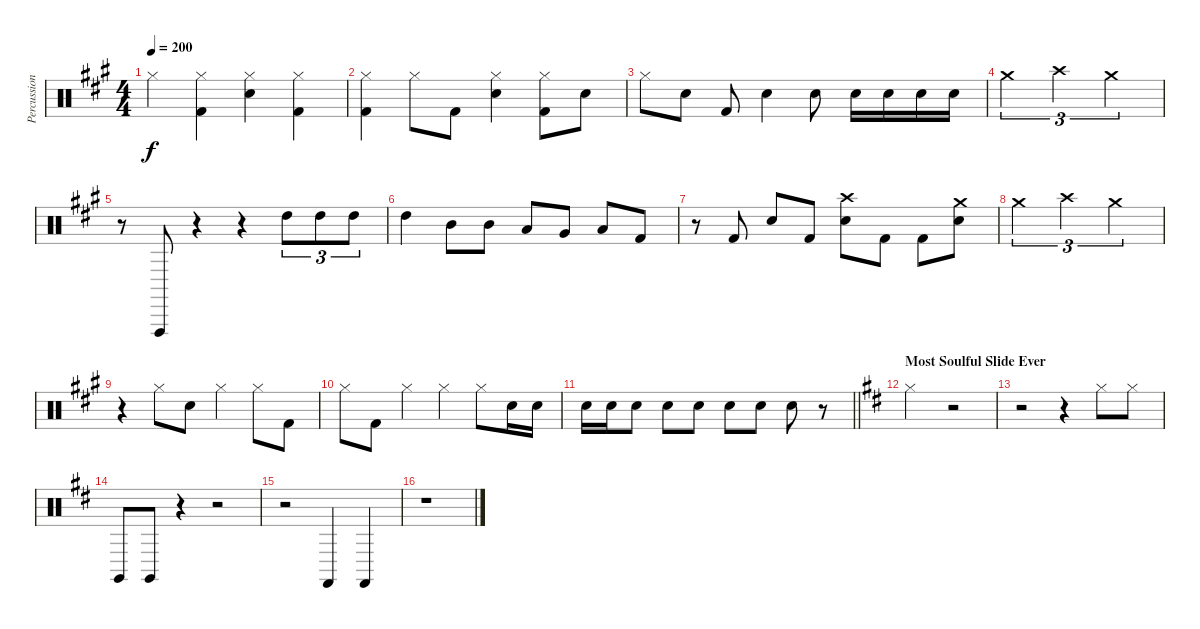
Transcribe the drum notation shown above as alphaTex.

\track ("Percussion" "Percussion") {instrument percussion}
\staff {score}
\articulation defaults
\ts (4 4)
\tempo 200
\clef neutral
\ks a "Hi-Hat (closed)".4{dy f}
("Hi-Hat (closed)" "Kick (hit) 2").4 ("Hi-Hat (closed)" "Electric Snare (hit)").4 ("Hi-Hat (closed)" "Kick (hit) 2").4 |
("Hi-Hat (closed)" "Kick (hit) 2").4 "Hi-Hat (closed)".8 "Kick (hit) 2".8 ("Hi-Hat (closed)" "Electric Snare (hit)").4 ("Hi-Hat (closed)" "Kick (hit) 2").8 "Electric Snare (hit)".8 |
"Hi-Hat (closed)".8 "Electric Snare (hit)".8 "Kick (hit) 2".8 "Electric Snare (hit)".4 "Electric Snare (hit)".8 "Electric Snare (hit)".16 "Electric Snare (hit)".16 "Electric Snare (hit)".16 "Electric Snare (hit)".16 |
"Crash medium (hit)".2{tu (3 2)} "Crash high (hit)".2{tu (3 2)} "Crash medium (hit)".2{tu (3 2)} |
r.8 "Vibraslap (hit)".8 r.4 r.4 "High Tom (hit)".8{tu (3 2)} "High Tom (hit)".8{tu (3 2)} "High Tom (hit)".8{tu (3 2)} |
"High Tom (hit)".4 "Mid Tom (hit)".8 "Mid Tom (hit)".8 "Low Tom (hit)".8 "Very Low Tom (hit)".8 "Low Floor Tom (hit)".8 "Kick (hit) 2".8 |
r.8 "Kick (hit) 2".8 "Electric Snare (hit)".8 "Kick (hit) 2".8 ("Crash high (hit)" "Electric Snare (hit)").8 "Kick (hit) 2".8 "Kick (hit) 2".8 ("Crash medium (hit)" "Electric Snare (hit)").8 |
"Crash medium (hit)".2{tu (3 2)} "Crash high (hit)".2{tu (3 2)} "Crash medium (hit)".2{tu (3 2)} |
r.4 "Hi-Hat (closed)".8 "Electric Snare (hit)".8 "Hi-Hat (closed)".4 "Hi-Hat (closed)".8 "Kick (hit) 2".8 |
"Hi-Hat (closed)".8 "Kick (hit) 2".8 "Hi-Hat (closed)".4 "Hi-Hat (closed)".4 "Hi-Hat (closed)".8 "Electric Snare (hit)".16 "Electric Snare (hit)".16 |
\barLineRight lightlight "Electric Snare (hit)".16 "Electric Snare (hit)".16 "Electric Snare (hit)".8 "Electric Snare (hit)".8 "Electric Snare (hit)".8 "Electric Snare (hit)".8 "Electric Snare (hit)".8 "Electric Snare (hit)".8
r.8 |
\section ("" "Most Soulful Slide Ever")
\ks bminor "Hi-Hat (closed)".2
r.2 |
r.2 r.4 "Hi-Hat (closed)".8 "Hi-Hat (closed)".8 |
"Claves (hit)".8 "Claves (hit)".8 r.4 r.2 |
r.2 "Castanets (hit)".4 "Castanets (hit)".4 |
r.1
